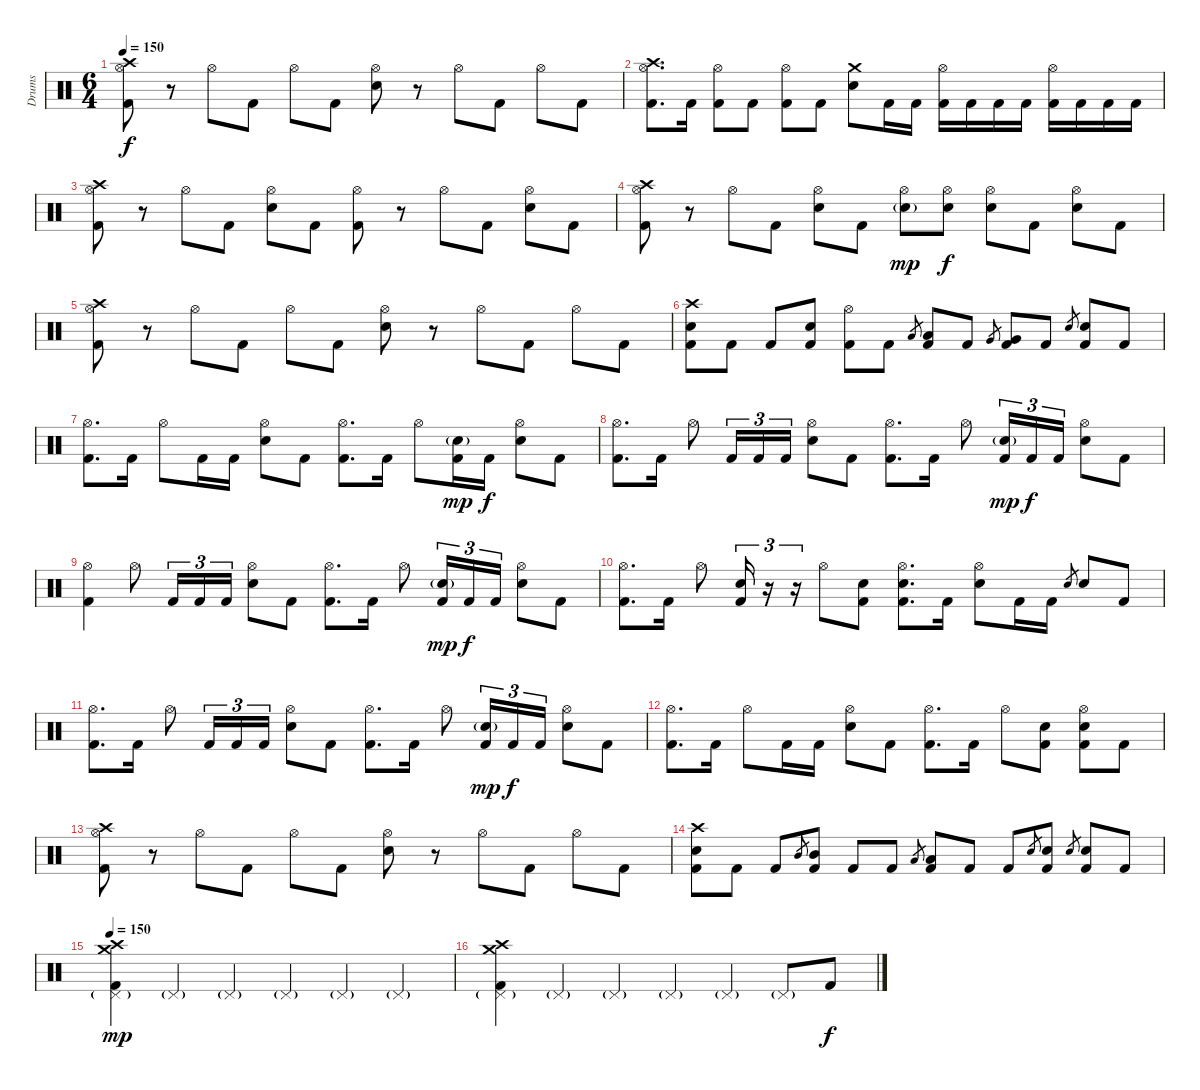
\track ("Drums" "Drums") {instrument percussion}
\staff {score}
\articulation defaults
\ts (6 4)
\tempo 150
\clef neutral
\ks c
("Crash high (hit)" "Hi-Hat (open)" "Kick (hit) 2").8{dy f} r.8 "Hi-Hat (open)".8 "Kick (hit) 2".8 "Hi-Hat (open)".8 "Kick (hit) 2".8 ("Hi-Hat (open)" "Snare (hit) 2").8 r.8 "Hi-Hat (open)".8 "Kick (hit) 2".8 "Hi-Hat (open)".8 "Kick (hit) 2".8 |
("Crash high (hit)" "Hi-Hat (open)" "Kick (hit) 2").8{d} "Kick (hit) 2".16 ("Hi-Hat (open)" "Kick (hit) 2").8 "Kick (hit) 2".8 ("Hi-Hat (open)" "Kick (hit) 2").8 "Kick (hit) 2".8 ("Crash medium (hit)" "Snare (hit) 2").8 "Kick (hit) 2".16 "Kick (hit) 2".16 ("Hi-Hat (open)" "Kick (hit) 2").16 "Kick (hit) 2".16 "Kick (hit) 2".16 "Kick (hit) 2".16 ("Hi-Hat (open)" "Kick (hit) 2").16 "Kick (hit) 2".16 "Kick (hit) 2".16 "Kick (hit) 2".16 |
("Crash high (hit)" "Hi-Hat (open)" "Kick (hit) 2").8 r.8 "Hi-Hat (open)".8 "Kick (hit) 2".8 ("Hi-Hat (open)" "Snare (hit) 2").8 "Kick (hit) 2".8 ("Hi-Hat (open)" "Kick (hit) 2").8 r.8 "Hi-Hat (open)".8 "Kick (hit) 2".8 ("Hi-Hat (open)" "Snare (hit) 2").8 "Kick (hit) 2".8 |
("Crash high (hit)" "Hi-Hat (open)" "Kick (hit) 2").8 r.8 "Hi-Hat (open)".8 "Kick (hit) 2".8 ("Hi-Hat (open)" "Snare (hit) 2").8 "Kick (hit) 2".8 ("Hi-Hat (open)" "Snare (hit) 2"{g}).8{dy mp} ("Hi-Hat (open)" "Snare (hit) 2").8{dy f} ("Hi-Hat (open)" "Snare (hit) 2").8 "Kick (hit) 2".8 ("Hi-Hat (open)" "Snare (hit) 2").8 "Kick (hit) 2".8 |
("Crash high (hit)" "Hi-Hat (open)" "Kick (hit) 2").8 r.8 "Hi-Hat (open)".8 "Kick (hit) 2".8 "Hi-Hat (open)".8 "Kick (hit) 2".8 ("Hi-Hat (open)" "Snare (hit) 2").8 r.8 "Hi-Hat (open)".8 "Kick (hit) 2".8 "Hi-Hat (open)".8 "Kick (hit) 2".8 |
("Crash high (hit)" "Snare (hit) 2" "Kick (hit) 2").8 "Kick (hit) 2".8 "Kick (hit) 2".8 ("Snare (hit) 2" "Kick (hit) 2").8 ("Hi-Hat (open)" "Kick (hit) 2").8 "Kick (hit) 2".8 "Low Tom (hit)".8{gr} ("Low Tom (hit)" "Kick (hit) 2").8 "Kick (hit) 2".8 "Very Low Tom (hit)".8{gr} ("Very Low Tom (hit)" "Kick (hit) 2").8 "Kick (hit) 2".8 "Snare (hit) 2".8{gr} ("Snare (hit) 2" "Kick (hit) 2").8 "Kick (hit) 2".8 |
("Hi-Hat (open)" "Kick (hit) 2").8{d} "Kick (hit) 2".16 "Hi-Hat (open)".8 "Kick (hit) 2".16 "Kick (hit) 2".16 ("Hi-Hat (open)" "Snare (hit) 2").8 "Kick (hit) 2".8 ("Hi-Hat (open)" "Kick (hit) 2").8{d} "Kick (hit) 2".16 "Hi-Hat (open)".8 ("Snare (hit) 2"{g} "Kick (hit) 2").16{dy mp} "Kick (hit) 2".16{dy f} ("Hi-Hat (open)" "Snare (hit) 2").8 "Kick (hit) 2".8 |
("Hi-Hat (open)" "Kick (hit) 2").8{d} "Kick (hit) 2".16 "Hi-Hat (open)".8 "Kick (hit) 2".16{tu (3 2)} "Kick (hit) 2".16{tu (3 2)} "Kick (hit) 2".16{tu (3 2)} ("Hi-Hat (open)" "Snare (hit) 2").8 "Kick (hit) 2".8 ("Hi-Hat (open)" "Kick (hit) 2").8{d} "Kick (hit) 2".16 "Hi-Hat (open)".8 ("Snare (hit) 2"{g} "Kick (hit) 2").16{tu (3 2) dy mp} "Kick (hit) 2".16{tu (3 2) dy f} "Kick (hit) 2".16{tu (3 2)} ("Hi-Hat (open)" "Snare (hit) 2").8 "Kick (hit) 2".8 |
("Hi-Hat (open)" "Kick (hit) 2").4 "Hi-Hat (open)".8 "Kick (hit) 2".16{tu (3 2)} "Kick (hit) 2".16{tu (3 2)} "Kick (hit) 2".16{tu (3 2)} ("Hi-Hat (open)" "Snare (hit) 2").8 "Kick (hit) 2".8 ("Hi-Hat (open)" "Kick (hit) 2").8{d} "Kick (hit) 2".16 "Hi-Hat (open)".8 ("Snare (hit) 2"{g} "Kick (hit) 2").16{tu (3 2) dy mp} "Kick (hit) 2".16{tu (3 2) dy f} "Kick (hit) 2".16{tu (3 2)} ("Hi-Hat (open)" "Snare (hit) 2").8 "Kick (hit) 2".8 |
("Hi-Hat (open)" "Kick (hit) 2").8{d} "Kick (hit) 2".16 "Hi-Hat (open)".8 ("Snare (hit) 2" "Kick (hit) 2").16{tu (3 2)} r.16{tu (3 2)} r.16{tu (3 2)} "Hi-Hat (open)".8 ("Snare (hit) 2" "Kick (hit) 2").8 ("Hi-Hat (open)" "Snare (hit) 2" "Kick (hit) 2").8{d} "Kick (hit) 2".16 ("Hi-Hat (open)" "Snare (hit) 2").8 "Kick (hit) 2".16 "Kick (hit) 2".16 "Snare (hit) 2".8{gr} "Snare (hit) 2".8 "Kick (hit) 2".8 |
("Hi-Hat (open)" "Kick (hit) 2").8{d} "Kick (hit) 2".16 "Hi-Hat (open)".8 "Kick (hit) 2".16{tu (3 2)} "Kick (hit) 2".16{tu (3 2)} "Kick (hit) 2".16{tu (3 2)} ("Hi-Hat (open)" "Snare (hit) 2").8 "Kick (hit) 2".8 ("Hi-Hat (open)" "Kick (hit) 2").8{d} "Kick (hit) 2".16 "Hi-Hat (open)".8 ("Snare (hit) 2"{g} "Kick (hit) 2").16{tu (3 2) dy mp} "Kick (hit) 2".16{tu (3 2) dy f} "Kick (hit) 2".16{tu (3 2)} ("Hi-Hat (open)" "Snare (hit) 2").8 "Kick (hit) 2".8 |
("Hi-Hat (open)" "Kick (hit) 2").8{d} "Kick (hit) 2".16 "Hi-Hat (open)".8 "Kick (hit) 2".16 "Kick (hit) 2".16 ("Hi-Hat (open)" "Snare (hit) 2").8 "Kick (hit) 2".8 ("Hi-Hat (open)" "Kick (hit) 2").8{d} "Kick (hit) 2".16 "Hi-Hat (open)".8 ("Snare (hit) 2" "Kick (hit) 2").8 ("Hi-Hat (open)" "Snare (hit) 2" "Kick (hit) 2").8 "Kick (hit) 2".8 |
("Crash high (hit)" "Hi-Hat (open)" "Kick (hit) 2").8 r.8 "Hi-Hat (open)".8 "Kick (hit) 2".8 "Hi-Hat (open)".8 "Kick (hit) 2".8 ("Hi-Hat (open)" "Snare (hit) 2").8 r.8 "Hi-Hat (open)".8 "Kick (hit) 2".8 "Hi-Hat (open)".8 "Kick (hit) 2".8 |
("Crash high (hit)" "Snare (hit) 2" "Kick (hit) 2").8 "Kick (hit) 2".8 "Kick (hit) 2".8 "Mid Tom (hit)".8{gr} ("Mid Tom (hit)" "Kick (hit) 2").8 "Kick (hit) 2".8 "Kick (hit) 2".8 "Low Tom (hit)".8{gr} ("Low Tom (hit)" "Kick (hit) 2").8 "Kick (hit) 2".8 "Kick (hit) 2".8 "Snare (hit) 2".8{gr} ("Snare (hit) 2" "Kick (hit) 2").8 "Snare (hit) 2".8{gr} ("Snare (hit) 2" "Kick (hit) 2").8 "Kick (hit) 2".8 |
\tempo 150
("Crash high (hit)" "Crash medium (hit)" "Pedal Hi-Hat (hit)"{g} "Kick (hit) 2").4{dy mp} "Pedal Hi-Hat (hit)"{g}.4 "Pedal Hi-Hat (hit)"{g}.4 "Pedal Hi-Hat (hit)"{g}.4 "Pedal Hi-Hat (hit)"{g}.4 "Pedal Hi-Hat (hit)"{g}.4 |
("Crash high (hit)" "Crash medium (hit)" "Pedal Hi-Hat (hit)"{g} "Kick (hit) 2").4 "Pedal Hi-Hat (hit)"{g}.4 "Pedal Hi-Hat (hit)"{g}.4 "Pedal Hi-Hat (hit)"{g}.4 "Pedal Hi-Hat (hit)"{g}.4 "Pedal Hi-Hat (hit)"{g}.8 "Kick (hit) 2".8{dy f}
